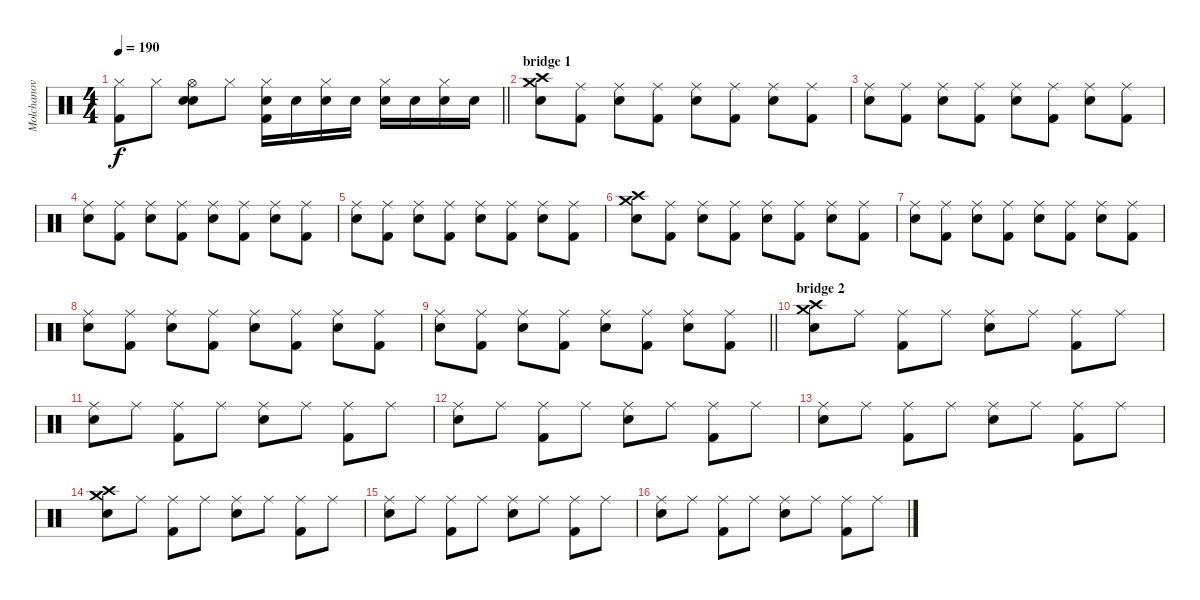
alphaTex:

\track ("Molchanov" "Molchanov") {instrument percussion}
\staff {score}
\articulation defaults
\ts (4 4)
\tempo 190
\clef neutral
\barLineRight lightlight
\ks c
("Hi-Hat (closed)" "Kick (hit) 2").8{dy f} "Hi-Hat (closed)".8 ("Hi-Hat (open)" "Snare (hit) 2" "Electric Snare (hit)").8 "Hi-Hat (closed)".8 ("Hi-Hat (closed)" "Snare (hit) 2" "Kick (hit) 2").16 "Snare (hit) 2".16 ("Hi-Hat (closed)" "Snare (hit) 2").16 "Snare (hit) 2".16 ("Hi-Hat (closed)" "Snare (hit) 2").16 "Snare (hit) 2".16 ("Hi-Hat (closed)" "Snare (hit) 2").16 "Snare (hit) 2".16 |
\section ("" "bridge 1")
("Crash high (hit)" "Snare (hit) 2" "Crash medium (hit)").8 ("Ride (middle)" "Kick (hit) 2").8 ("Ride (middle)" "Snare (hit) 2").8 ("Ride (middle)" "Kick (hit) 2").8 ("Ride (middle)" "Snare (hit) 2").8 ("Ride (middle)" "Kick (hit) 2").8 ("Ride (middle)" "Snare (hit) 2").8 ("Ride (middle)" "Kick (hit) 2").8 |
("Ride (middle)" "Snare (hit) 2").8 ("Ride (middle)" "Kick (hit) 2").8 ("Ride (middle)" "Snare (hit) 2").8 ("Ride (middle)" "Kick (hit) 2").8 ("Ride (middle)" "Snare (hit) 2").8 ("Ride (middle)" "Kick (hit) 2").8 ("Ride (middle)" "Snare (hit) 2").8 ("Ride (middle)" "Kick (hit) 2").8 |
("Ride (middle)" "Snare (hit) 2").8 ("Ride (middle)" "Kick (hit) 2").8 ("Ride (middle)" "Snare (hit) 2").8 ("Ride (middle)" "Kick (hit) 2").8 ("Ride (middle)" "Snare (hit) 2").8 ("Ride (middle)" "Kick (hit) 2").8 ("Ride (middle)" "Snare (hit) 2").8 ("Ride (middle)" "Kick (hit) 2").8 |
("Ride (middle)" "Snare (hit) 2").8 ("Ride (middle)" "Kick (hit) 2").8 ("Ride (middle)" "Snare (hit) 2").8 ("Ride (middle)" "Kick (hit) 2").8 ("Ride (middle)" "Snare (hit) 2").8 ("Ride (middle)" "Kick (hit) 2").8 ("Ride (middle)" "Snare (hit) 2").8 ("Ride (middle)" "Kick (hit) 2").8 |
("Crash high (hit)" "Snare (hit) 2" "Crash medium (hit)").8 ("Ride (middle)" "Kick (hit) 2").8 ("Ride (middle)" "Snare (hit) 2").8 ("Ride (middle)" "Kick (hit) 2").8 ("Ride (middle)" "Snare (hit) 2").8 ("Ride (middle)" "Kick (hit) 2").8 ("Ride (middle)" "Snare (hit) 2").8 ("Ride (middle)" "Kick (hit) 2").8 |
("Ride (middle)" "Snare (hit) 2").8 ("Ride (middle)" "Kick (hit) 2").8 ("Ride (middle)" "Snare (hit) 2").8 ("Ride (middle)" "Kick (hit) 2").8 ("Ride (middle)" "Snare (hit) 2").8 ("Ride (middle)" "Kick (hit) 2").8 ("Ride (middle)" "Snare (hit) 2").8 ("Ride (middle)" "Kick (hit) 2").8 |
("Ride (middle)" "Snare (hit) 2").8 ("Ride (middle)" "Kick (hit) 2").8 ("Ride (middle)" "Snare (hit) 2").8 ("Ride (middle)" "Kick (hit) 2").8 ("Ride (middle)" "Snare (hit) 2").8 ("Ride (middle)" "Kick (hit) 2").8 ("Ride (middle)" "Snare (hit) 2").8 ("Ride (middle)" "Kick (hit) 2").8 |
\barLineRight lightlight
("Ride (middle)" "Snare (hit) 2").8 ("Ride (middle)" "Kick (hit) 2").8 ("Ride (middle)" "Snare (hit) 2").8 ("Ride (middle)" "Kick (hit) 2").8 ("Ride (middle)" "Snare (hit) 2").8 ("Ride (middle)" "Kick (hit) 2").8 ("Ride (middle)" "Snare (hit) 2").8 ("Ride (middle)" "Kick (hit) 2").8 |
\section ("" "bridge 2")
("Crash high (hit)" "Snare (hit) 2" "Crash medium (hit)").8 "Ride (middle)".8 ("Ride (middle)" "Kick (hit) 2").8 "Ride (middle)".8 ("Ride (middle)" "Snare (hit) 2").8 "Ride (middle)".8 ("Ride (middle)" "Kick (hit) 2").8 "Ride (middle)".8 |
("Ride (middle)" "Snare (hit) 2").8 "Ride (middle)".8 ("Ride (middle)" "Kick (hit) 2").8 "Ride (middle)".8 ("Ride (middle)" "Snare (hit) 2").8 "Ride (middle)".8 ("Ride (middle)" "Kick (hit) 2").8 "Ride (middle)".8 |
("Ride (middle)" "Snare (hit) 2").8 "Ride (middle)".8 ("Ride (middle)" "Kick (hit) 2").8 "Ride (middle)".8 ("Ride (middle)" "Snare (hit) 2").8 "Ride (middle)".8 ("Ride (middle)" "Kick (hit) 2").8 "Ride (middle)".8 |
("Ride (middle)" "Snare (hit) 2").8 "Ride (middle)".8 ("Ride (middle)" "Kick (hit) 2").8 "Ride (middle)".8 ("Ride (middle)" "Snare (hit) 2").8 "Ride (middle)".8 ("Ride (middle)" "Kick (hit) 2").8 "Ride (middle)".8 |
("Crash high (hit)" "Snare (hit) 2" "Crash medium (hit)").8 "Ride (middle)".8 ("Ride (middle)" "Kick (hit) 2").8 "Ride (middle)".8 ("Ride (middle)" "Snare (hit) 2").8 "Ride (middle)".8 ("Ride (middle)" "Kick (hit) 2").8 "Ride (middle)".8 |
("Ride (middle)" "Snare (hit) 2").8 "Ride (middle)".8 ("Ride (middle)" "Kick (hit) 2").8 "Ride (middle)".8 ("Ride (middle)" "Snare (hit) 2").8 "Ride (middle)".8 ("Ride (middle)" "Kick (hit) 2").8 "Ride (middle)".8 |
("Ride (middle)" "Snare (hit) 2").8 "Ride (middle)".8 ("Ride (middle)" "Kick (hit) 2").8 "Ride (middle)".8 ("Ride (middle)" "Snare (hit) 2").8 "Ride (middle)".8 ("Ride (middle)" "Kick (hit) 2").8 "Ride (middle)".8
